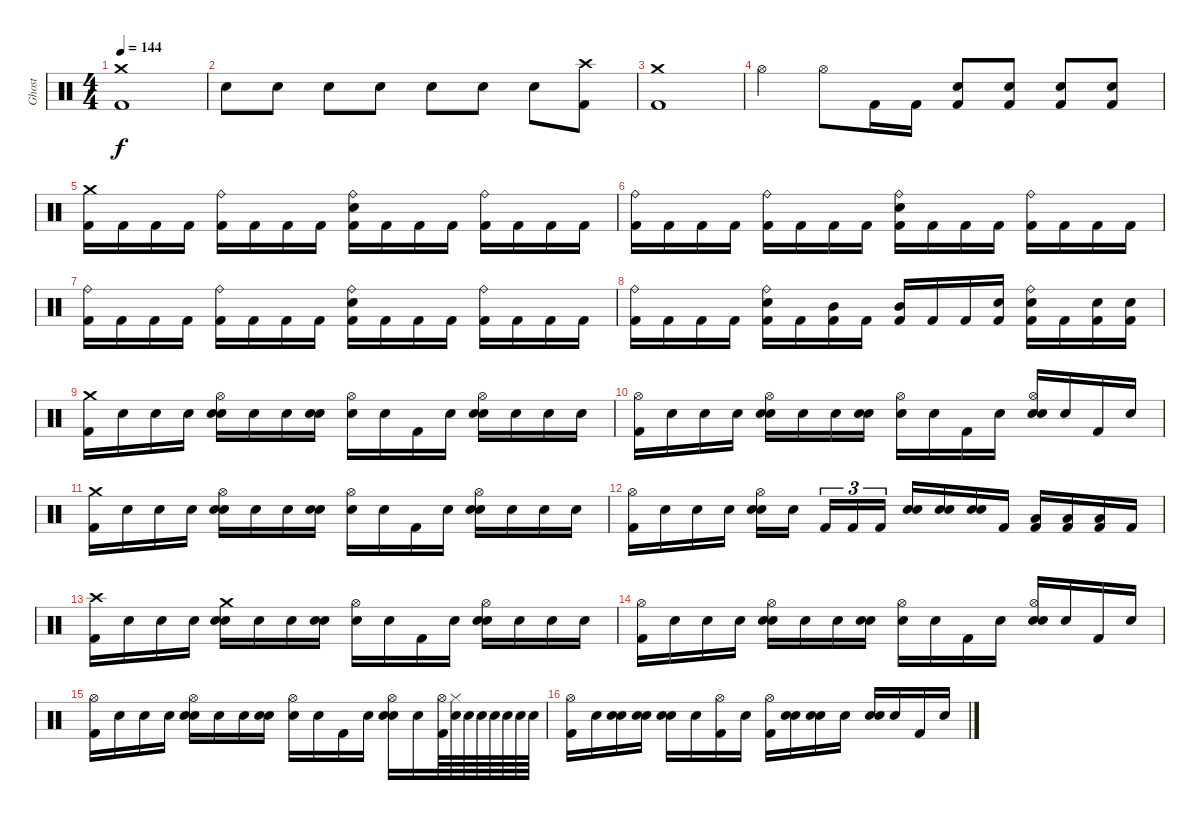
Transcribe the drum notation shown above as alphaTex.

\track ("Ghost" "Ghost") {instrument percussion}
\staff {score}
\articulation defaults
\ts (4 4)
\tempo 144
\clef neutral
\ks c
("Crash medium (hit)" "Kick (hit) 2").1{dy f} |
"Snare (hit)".8 "Snare (hit)".8 "Snare (hit)".8 "Snare (hit)".8 "Snare (hit)".8 "Snare (hit)".8 "Snare (hit)".8 ("Crash high (hit)" "Kick (hit) 2").8 |
("Crash medium (hit)" "Kick (hit) 2").1 |
"Hi-Hat (open)".4 "Hi-Hat (open)".8 "Kick (hit) 2".16 "Kick (hit) 2".16 ("Electric Snare (hit)" "Kick (hit) 2").8 ("Electric Snare (hit)" "Kick (hit) 2").8 ("Electric Snare (hit)" "Kick (hit) 2").8 ("Electric Snare (hit)" "Kick (hit) 2").8 |
("Crash medium (hit)" "Kick (hit) 2").16 "Kick (hit) 2".16 "Kick (hit) 2".16 "Kick (hit) 2".16 ("Ride (bell)" "Kick (hit) 2").16 "Kick (hit) 2".16 "Kick (hit) 2".16 "Kick (hit) 2".16 ("Electric Snare (hit)" "Ride (bell)" "Kick (hit) 2").16 "Kick (hit) 2".16 "Kick (hit) 2".16 "Kick (hit) 2".16 ("Ride (bell)" "Kick (hit) 2").16 "Kick (hit) 2".16 "Kick (hit) 2".16 "Kick (hit) 2".16 |
("Ride (bell)" "Kick (hit) 2").16 "Kick (hit) 2".16 "Kick (hit) 2".16 "Kick (hit) 2".16 ("Ride (bell)" "Kick (hit) 2").16 "Kick (hit) 2".16 "Kick (hit) 2".16 "Kick (hit) 2".16 ("Electric Snare (hit)" "Ride (bell)" "Kick (hit) 2").16 "Kick (hit) 2".16 "Kick (hit) 2".16 "Kick (hit) 2".16 ("Ride (bell)" "Kick (hit) 2").16 "Kick (hit) 2".16 "Kick (hit) 2".16 "Kick (hit) 2".16 |
("Ride (bell)" "Kick (hit) 2").16 "Kick (hit) 2".16 "Kick (hit) 2".16 "Kick (hit) 2".16 ("Ride (bell)" "Kick (hit) 2").16 "Kick (hit) 2".16 "Kick (hit) 2".16 "Kick (hit) 2".16 ("Electric Snare (hit)" "Ride (bell)" "Kick (hit) 2").16 "Kick (hit) 2".16 "Kick (hit) 2".16 "Kick (hit) 2".16 ("Ride (bell)" "Kick (hit) 2").16 "Kick (hit) 2".16 "Kick (hit) 2".16 "Kick (hit) 2".16 |
("Ride (bell)" "Kick (hit) 2").16 "Kick (hit) 2".16 "Kick (hit) 2".16 "Kick (hit) 2".16 ("Electric Snare (hit)" "Ride (bell)" "Kick (hit) 2").16 "Kick (hit) 2".16 ("Mid Tom (hit)" "Kick (hit) 2").16 "Kick (hit) 2".16 ("Mid Tom (hit)" "Kick (hit) 2").16 "Kick (hit) 2".16 "Kick (hit) 2".16 ("Electric Snare (hit)" "Kick (hit) 2").16 ("Electric Snare (hit)" "Ride (bell)" "Kick (hit) 2").16 "Kick (hit) 2".16 ("Electric Snare (hit)" "Kick (hit) 2").16 ("Electric Snare (hit)" "Kick (hit) 2").16 |
("Crash medium (hit)" "Kick (hit) 2").16 "Snare (hit)".16 "Snare (hit)".16 "Snare (hit)".16 ("Hi-Hat (open)" "Electric Snare (hit)" "Snare (hit)").16 "Snare (hit)".16 "Snare (hit)".16 ("Electric Snare (hit)" "Snare (hit)").16 ("Hi-Hat (open)" "Snare (hit)").16 "Snare (hit)".16 "Kick (hit) 2".16 "Snare (hit)".16 ("Hi-Hat (open)" "Electric Snare (hit)" "Snare (hit)").16 "Snare (hit)".16 "Snare (hit)".16 "Snare (hit)".16 |
("Hi-Hat (open)" "Kick (hit) 2").16 "Snare (hit)".16 "Snare (hit)".16 "Snare (hit)".16 ("Hi-Hat (open)" "Electric Snare (hit)" "Snare (hit)").16 "Snare (hit)".16 "Snare (hit)".16 ("Electric Snare (hit)" "Snare (hit)").16 ("Hi-Hat (open)" "Snare (hit)").16 "Snare (hit)".16 "Kick (hit) 2".16 "Snare (hit)".16 ("Hi-Hat (open)" "Electric Snare (hit)" "Snare (hit)").16 "Snare (hit)".16 "Kick (hit) 2".16 "Snare (hit)".16 |
("Crash medium (hit)" "Kick (hit) 2").16 "Snare (hit)".16 "Snare (hit)".16 "Snare (hit)".16 ("Hi-Hat (open)" "Electric Snare (hit)" "Snare (hit)").16 "Snare (hit)".16 "Snare (hit)".16 ("Electric Snare (hit)" "Snare (hit)").16 ("Hi-Hat (open)" "Snare (hit)").16 "Snare (hit)".16 "Kick (hit) 2".16 "Snare (hit)".16 ("Hi-Hat (open)" "Electric Snare (hit)" "Snare (hit)").16 "Snare (hit)".16 "Snare (hit)".16 "Snare (hit)".16 |
("Hi-Hat (open)" "Kick (hit) 2").16 "Snare (hit)".16 "Snare (hit)".16 "Snare (hit)".16 ("Hi-Hat (open)" "Electric Snare (hit)" "Snare (hit)").16 "Snare (hit)".16{beam splitsecondary} "Kick (hit) 2".16{tu (3 2)} "Kick (hit) 2".16{tu (3 2)} "Kick (hit) 2".16{tu (3 2)} ("Electric Snare (hit)" "Snare (hit)").16 ("Electric Snare (hit)" "Snare (hit)").16 ("Electric Snare (hit)" "Snare (hit)").16 "Kick (hit) 2".16 ("Low Tom (hit)" "Kick (hit) 2").16 ("Low Tom (hit)" "Kick (hit) 2").16 ("Low Tom (hit)" "Kick (hit) 2").16 "Kick (hit) 2".16 |
("Crash high (hit)" "Kick (hit) 2").16 "Snare (hit)".16 "Snare (hit)".16 "Snare (hit)".16 ("Crash medium (hit)" "Electric Snare (hit)" "Snare (hit)").16 "Snare (hit)".16 "Snare (hit)".16 ("Electric Snare (hit)" "Snare (hit)").16 ("Hi-Hat (open)" "Snare (hit)").16 "Snare (hit)".16 "Kick (hit) 2".16 "Snare (hit)".16 ("Hi-Hat (open)" "Electric Snare (hit)" "Snare (hit)").16 "Snare (hit)".16 "Snare (hit)".16 "Snare (hit)".16 |
("Hi-Hat (open)" "Kick (hit) 2").16 "Snare (hit)".16 "Snare (hit)".16 "Snare (hit)".16 ("Hi-Hat (open)" "Electric Snare (hit)" "Snare (hit)").16 "Snare (hit)".16 "Snare (hit)".16 ("Electric Snare (hit)" "Snare (hit)").16 ("Hi-Hat (open)" "Snare (hit)").16 "Snare (hit)".16 "Kick (hit) 2".16 "Snare (hit)".16 ("Hi-Hat (open)" "Electric Snare (hit)" "Snare (hit)").16 "Snare (hit)".16 "Kick (hit) 2".16 "Snare (hit)".16 |
("Hi-Hat (open)" "Kick (hit) 2").16 "Snare (hit)".16 "Snare (hit)".16 "Snare (hit)".16 ("Hi-Hat (open)" "Electric Snare (hit)" "Snare (hit)").16 "Snare (hit)".16 "Snare (hit)".16 ("Electric Snare (hit)" "Snare (hit)").16 ("Hi-Hat (open)" "Snare (hit)").16 "Snare (hit)".16 "Kick (hit) 2".16 "Snare (hit)".16 ("Hi-Hat (open)" "Electric Snare (hit)" "Snare (hit)").16 "Snare (hit)".16 ("Hi-Hat (open)" "Kick (hit) 2").64 ("Hi-Hat (closed)" "Snare (hit)").64 "Snare (hit)".64 "Snare (hit)".64 "Snare (hit)".64 "Snare (hit)".64 "Snare (hit)".64 "Snare (hit)".64 |
("Hi-Hat (open)" "Kick (hit) 2").16 "Snare (hit)".16 ("Electric Snare (hit)" "Snare (hit)").16 ("Electric Snare (hit)" "Snare (hit)").16 ("Electric Snare (hit)" "Snare (hit)").16 "Snare (hit)".16 ("Hi-Hat (open)" "Kick (hit) 2").16 "Snare (hit)".16 ("Hi-Hat (open)" "Kick (hit) 2").16 ("Electric Snare (hit)" "Snare (hit)").16 ("Electric Snare (hit)" "Snare (hit)").16 "Snare (hit)".16 ("Electric Snare (hit)" "Snare (hit)").16 "Snare (hit)".16 "Kick (hit) 2".16 "Snare (hit)".16
